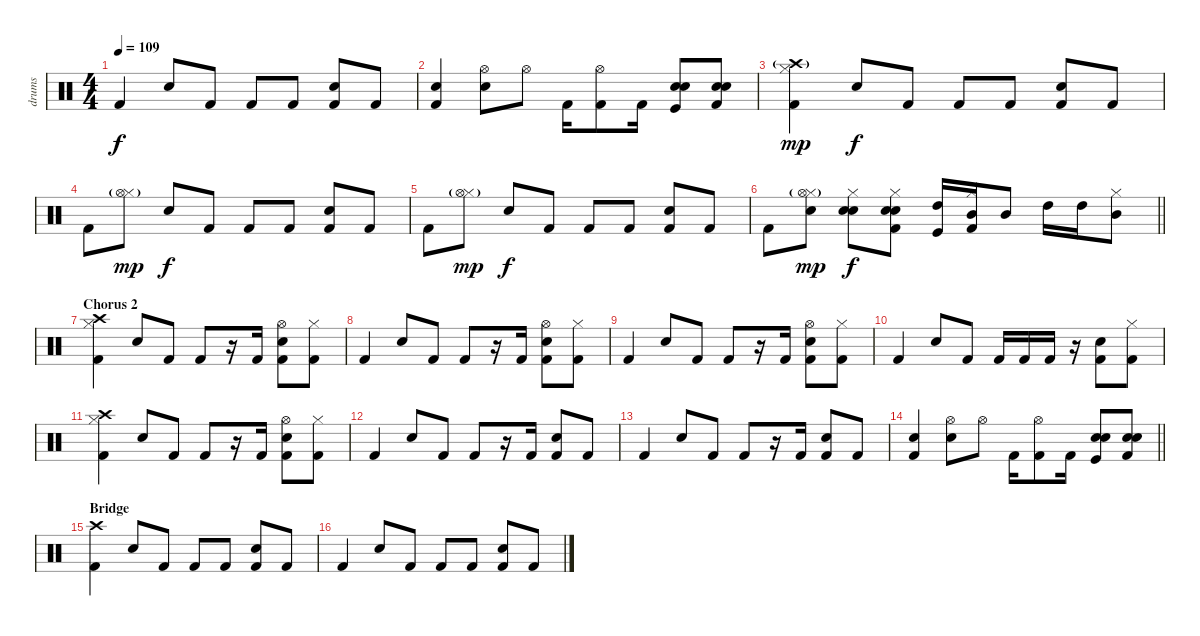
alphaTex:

\track ("drums" "drums") {instrument percussion}
\staff {score}
\articulation defaults
\ts (4 4)
\tempo 109
\clef neutral
\ks c "Kick (hit) 2".4{dy f} "Snare (hit) 2".8 "Kick (hit) 2".8 "Kick (hit) 2".8 "Kick (hit) 2".8
("Snare (hit) 2" "Kick (hit) 2").8 "Kick (hit) 2".8 |
("Snare (hit) 2" "Kick (hit) 2").4 ("Snare (hit) 2" "Hi-Hat (open)").8 "Hi-Hat (open)".8 "Kick (hit) 2".16 ("Hi-Hat (open)" "Kick (hit) 2").8 "Kick (hit) 2".16 ("Snare (hit) 2" "Kick (hit)" "Electric Snare (hit)").8 ("Snare (hit) 2" "Kick (hit) 2" "Electric Snare (hit)").8 |
("Kick (hit) 2" "Hi-Hat (closed)" "Crash high (hit)"{g}).4{dy mp} "Snare (hit) 2".8{dy f} "Kick (hit) 2".8 "Kick (hit) 2".8 "Kick (hit) 2".8 ("Snare (hit) 2" "Kick (hit) 2").8 "Kick (hit) 2".8 |
"Kick (hit) 2".8 ("Hi-Hat (closed)" "Hi-Hat (open)"{g}).8{dy mp} "Snare (hit) 2".8{dy f} "Kick (hit) 2".8 "Kick (hit) 2".8 "Kick (hit) 2".8 ("Snare (hit) 2" "Kick (hit) 2").8 "Kick (hit) 2".8 |
"Kick (hit) 2".8 ("Hi-Hat (closed)" "Hi-Hat (open)"{g}).8{dy mp} "Snare (hit) 2".8{dy f} "Kick (hit) 2".8 "Kick (hit) 2".8 "Kick (hit) 2".8 ("Snare (hit) 2" "Kick (hit) 2").8 "Kick (hit) 2".8 |
\barLineRight lightlight "Kick (hit) 2".8
("Hi-Hat (closed)" "Hi-Hat (open)"{g} "Snare (hit) 2").8{dy mp} ("Hi-Hat (closed)" "Snare (hit) 2" "Electric Snare (hit)").8{dy f} ("Hi-Hat (closed)" "Kick (hit) 2" "Snare (hit) 2" "Electric Snare (hit)").8 ("Kick (hit)" "High Tom (hit)").16 ("Hi-Hat (closed)" "Kick (hit) 2" "Mid Tom (hit)").16 "Mid Tom (hit)".8 "High Tom (hit)".16 "High Tom (hit)".16 ("Hi-Hat (closed)" "Mid Tom (hit)").8 |
\section ("" "Chorus 2")
("Hi-Hat (closed)" "Kick (hit) 2" "Crash high (hit)").4 "Snare (hit) 2".8 "Kick (hit) 2".8 "Kick (hit) 2".8 r.16 "Kick (hit) 2".16 ("Snare (hit) 2" "Kick (hit) 2" "Hi-Hat (open)").8 ("Hi-Hat (closed)" "Kick (hit) 2").8 |
"Kick (hit) 2".4 "Snare (hit) 2".8 "Kick (hit) 2".8 "Kick (hit) 2".8 r.16 "Kick (hit) 2".16 ("Snare (hit) 2" "Kick (hit) 2" "Hi-Hat (open)").8 ("Hi-Hat (closed)" "Kick (hit) 2").8 |
"Kick (hit) 2".4 "Snare (hit) 2".8 "Kick (hit) 2".8 "Kick (hit) 2".8 r.16 "Kick (hit) 2".16 ("Snare (hit) 2" "Kick (hit) 2" "Hi-Hat (open)").8 ("Hi-Hat (closed)" "Kick (hit) 2").8 |
"Kick (hit) 2".4 "Snare (hit) 2".8 "Kick (hit) 2".8 "Kick (hit) 2".16 "Kick (hit) 2".16 "Kick (hit) 2".16 r.16 ("Snare (hit) 2" "Kick (hit) 2").8 ("Hi-Hat (closed)" "Kick (hit) 2").8 |
("Hi-Hat (closed)" "Kick (hit) 2" "Crash high (hit)").4 "Snare (hit) 2".8 "Kick (hit) 2".8 "Kick (hit) 2".8 r.16 "Kick (hit) 2".16 ("Snare (hit) 2" "Kick (hit) 2" "Hi-Hat (open)").8 ("Hi-Hat (closed)" "Kick (hit) 2").8 |
"Kick (hit) 2".4 "Snare (hit) 2".8 "Kick (hit) 2".8 "Kick (hit) 2".8 r.16 "Kick (hit) 2".16 ("Snare (hit) 2" "Kick (hit) 2").8 "Kick (hit) 2".8 |
"Kick (hit) 2".4 "Snare (hit) 2".8 "Kick (hit) 2".8 "Kick (hit) 2".8 r.16 "Kick (hit) 2".16 ("Snare (hit) 2" "Kick (hit) 2").8 "Kick (hit) 2".8 |
\barLineRight lightlight
("Snare (hit) 2" "Kick (hit) 2").4 ("Snare (hit) 2" "Hi-Hat (open)").8 "Hi-Hat (open)".8 "Kick (hit) 2".16 ("Hi-Hat (open)" "Kick (hit) 2").8 "Kick (hit) 2".16 ("Snare (hit) 2" "Kick (hit)" "Electric Snare (hit)").8 ("Snare (hit) 2" "Kick (hit) 2" "Electric Snare (hit)").8 |
\section ("" "Bridge")
("Kick (hit) 2" "Crash high (hit)").4 "Snare (hit) 2".8 "Kick (hit) 2".8 "Kick (hit) 2".8 "Kick (hit) 2".8 ("Snare (hit) 2" "Kick (hit) 2").8 "Kick (hit) 2".8 |
"Kick (hit) 2".4 "Snare (hit) 2".8 "Kick (hit) 2".8 "Kick (hit) 2".8 "Kick (hit) 2".8 ("Snare (hit) 2" "Kick (hit) 2").8 "Kick (hit) 2".8
